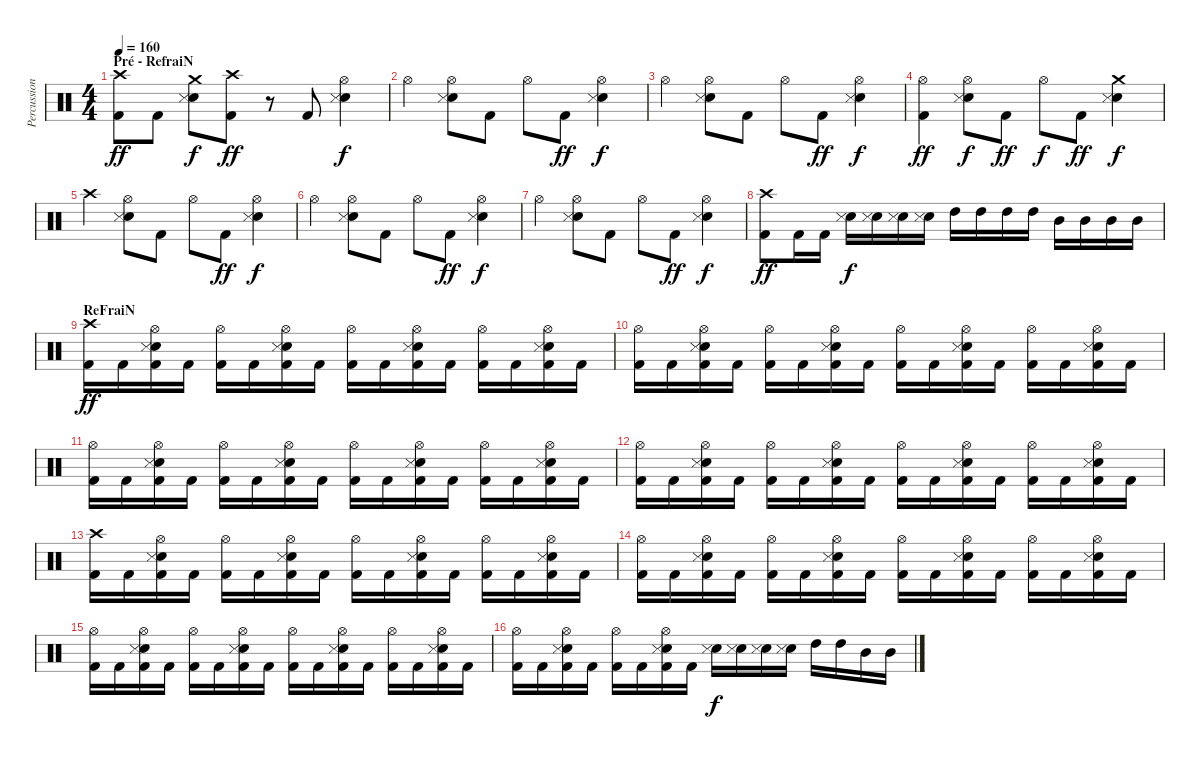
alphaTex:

\track ("Percussions" "Percussion") {instrument percussion}
\staff {score}
\articulation defaults
\ts (4 4)
\section ("" "Pré - RefraiN")
\tempo 160
\clef neutral
\ks c
("Crash high (hit)" "Kick (hit) 2").8{dy ff} "Kick (hit) 2".8 ("Crash medium (hit)" "Electric Snare (hit)" "Snare (side stick) 3").8{dy f} ("Crash high (hit)" "Kick (hit) 2").8{dy ff} r.8 "Kick (hit) 2".8 ("Hi-Hat (open)" "Electric Snare (hit)" "Snare (side stick) 3").4{dy f} |
"Hi-Hat (open)".4 ("Hi-Hat (open)" "Electric Snare (hit)" "Snare (side stick) 3").8 "Kick (hit) 2".8 "Hi-Hat (open)".8 "Kick (hit) 2".8{dy ff} ("Hi-Hat (open)" "Electric Snare (hit)" "Snare (side stick) 3").4{dy f} |
"Hi-Hat (open)".4 ("Hi-Hat (open)" "Electric Snare (hit)" "Snare (side stick) 3").8 "Kick (hit) 2".8 "Hi-Hat (open)".8 "Kick (hit) 2".8{dy ff} ("Hi-Hat (open)" "Electric Snare (hit)" "Snare (side stick) 3").4{dy f} |
("Hi-Hat (open)" "Kick (hit) 2").4{dy ff} ("Hi-Hat (open)" "Electric Snare (hit)" "Snare (side stick) 3").8{dy f} "Kick (hit) 2".8{dy ff} "Hi-Hat (open)".8{dy f} "Kick (hit) 2".8{dy ff} ("Crash medium (hit)" "Electric Snare (hit)" "Snare (side stick) 3").4{dy f} |
"Crash high (hit)".4 ("Hi-Hat (open)" "Electric Snare (hit)" "Snare (side stick) 3").8 "Kick (hit) 2".8 "Hi-Hat (open)".8 "Kick (hit) 2".8{dy ff} ("Hi-Hat (open)" "Electric Snare (hit)" "Snare (side stick) 3").4{dy f} |
"Hi-Hat (open)".4 ("Hi-Hat (open)" "Electric Snare (hit)" "Snare (side stick) 3").8 "Kick (hit) 2".8 "Hi-Hat (open)".8 "Kick (hit) 2".8{dy ff} ("Hi-Hat (open)" "Electric Snare (hit)" "Snare (side stick) 3").4{dy f} |
"Hi-Hat (open)".4 ("Hi-Hat (open)" "Electric Snare (hit)" "Snare (side stick) 3").8 "Kick (hit) 2".8 "Hi-Hat (open)".8 "Kick (hit) 2".8{dy ff} ("Hi-Hat (open)" "Electric Snare (hit)" "Snare (side stick) 3").4{dy f} |
("Crash high (hit)" "Kick (hit) 2").8{dy ff} "Kick (hit) 2".16 "Kick (hit) 2".16 ("Electric Snare (hit)" "Snare (side stick) 3").16{dy f} ("Electric Snare (hit)" "Snare (side stick) 3").16 ("Electric Snare (hit)" "Snare (side stick) 3").16 ("Electric Snare (hit)" "Snare (side stick) 3").16 "High Tom (hit)".16 "High Tom (hit)".16 "High Tom (hit)".16 "High Tom (hit)".16 "Mid Tom (hit)".16 "Mid Tom (hit)".16 "Mid Tom (hit)".16 "Mid Tom (hit)".16 |
\section ("" "ReFraiN")
("Crash high (hit)" "Kick (hit) 2").16{dy ff} "Kick (hit) 2".16 ("Hi-Hat (open)" "Electric Snare (hit)" "Snare (side stick) 3" "Kick (hit) 2").16 "Kick (hit) 2".16 ("Hi-Hat (open)" "Kick (hit) 2").16 "Kick (hit) 2".16 ("Hi-Hat (open)" "Electric Snare (hit)" "Snare (side stick) 3" "Kick (hit) 2").16 "Kick (hit) 2".16 ("Hi-Hat (open)" "Kick (hit) 2").16 "Kick (hit) 2".16 ("Hi-Hat (open)" "Electric Snare (hit)" "Snare (side stick) 3" "Kick (hit) 2").16 "Kick (hit) 2".16 ("Hi-Hat (open)" "Kick (hit) 2").16 "Kick (hit) 2".16 ("Hi-Hat (open)" "Electric Snare (hit)" "Snare (side stick) 3" "Kick (hit) 2").16 "Kick (hit) 2".16 |
("Hi-Hat (open)" "Kick (hit) 2").16 "Kick (hit) 2".16 ("Hi-Hat (open)" "Electric Snare (hit)" "Snare (side stick) 3" "Kick (hit) 2").16 "Kick (hit) 2".16 ("Hi-Hat (open)" "Kick (hit) 2").16 "Kick (hit) 2".16 ("Hi-Hat (open)" "Electric Snare (hit)" "Snare (side stick) 3" "Kick (hit) 2").16 "Kick (hit) 2".16 ("Hi-Hat (open)" "Kick (hit) 2").16 "Kick (hit) 2".16 ("Hi-Hat (open)" "Electric Snare (hit)" "Snare (side stick) 3" "Kick (hit) 2").16 "Kick (hit) 2".16 ("Hi-Hat (open)" "Kick (hit) 2").16 "Kick (hit) 2".16 ("Hi-Hat (open)" "Electric Snare (hit)" "Snare (side stick) 3" "Kick (hit) 2").16 "Kick (hit) 2".16 |
("Hi-Hat (open)" "Kick (hit) 2").16 "Kick (hit) 2".16 ("Hi-Hat (open)" "Electric Snare (hit)" "Snare (side stick) 3" "Kick (hit) 2").16 "Kick (hit) 2".16 ("Hi-Hat (open)" "Kick (hit) 2").16 "Kick (hit) 2".16 ("Hi-Hat (open)" "Electric Snare (hit)" "Snare (side stick) 3" "Kick (hit) 2").16 "Kick (hit) 2".16 ("Hi-Hat (open)" "Kick (hit) 2").16 "Kick (hit) 2".16 ("Hi-Hat (open)" "Electric Snare (hit)" "Snare (side stick) 3" "Kick (hit) 2").16 "Kick (hit) 2".16 ("Hi-Hat (open)" "Kick (hit) 2").16 "Kick (hit) 2".16 ("Hi-Hat (open)" "Electric Snare (hit)" "Snare (side stick) 3" "Kick (hit) 2").16 "Kick (hit) 2".16 |
("Hi-Hat (open)" "Kick (hit) 2").16 "Kick (hit) 2".16 ("Hi-Hat (open)" "Electric Snare (hit)" "Snare (side stick) 3" "Kick (hit) 2").16 "Kick (hit) 2".16 ("Hi-Hat (open)" "Kick (hit) 2").16 "Kick (hit) 2".16 ("Hi-Hat (open)" "Electric Snare (hit)" "Snare (side stick) 3" "Kick (hit) 2").16 "Kick (hit) 2".16 ("Hi-Hat (open)" "Kick (hit) 2").16 "Kick (hit) 2".16 ("Hi-Hat (open)" "Electric Snare (hit)" "Snare (side stick) 3" "Kick (hit) 2").16 "Kick (hit) 2".16 ("Hi-Hat (open)" "Kick (hit) 2").16 "Kick (hit) 2".16 ("Hi-Hat (open)" "Electric Snare (hit)" "Snare (side stick) 3" "Kick (hit) 2").16 "Kick (hit) 2".16 |
("Crash high (hit)" "Kick (hit) 2").16 "Kick (hit) 2".16 ("Hi-Hat (open)" "Electric Snare (hit)" "Snare (side stick) 3" "Kick (hit) 2").16 "Kick (hit) 2".16 ("Hi-Hat (open)" "Kick (hit) 2").16 "Kick (hit) 2".16 ("Hi-Hat (open)" "Electric Snare (hit)" "Snare (side stick) 3" "Kick (hit) 2").16 "Kick (hit) 2".16 ("Hi-Hat (open)" "Kick (hit) 2").16 "Kick (hit) 2".16 ("Hi-Hat (open)" "Electric Snare (hit)" "Snare (side stick) 3" "Kick (hit) 2").16 "Kick (hit) 2".16 ("Hi-Hat (open)" "Kick (hit) 2").16 "Kick (hit) 2".16 ("Hi-Hat (open)" "Electric Snare (hit)" "Snare (side stick) 3" "Kick (hit) 2").16 "Kick (hit) 2".16 |
("Hi-Hat (open)" "Kick (hit) 2").16 "Kick (hit) 2".16 ("Hi-Hat (open)" "Electric Snare (hit)" "Snare (side stick) 3" "Kick (hit) 2").16 "Kick (hit) 2".16 ("Hi-Hat (open)" "Kick (hit) 2").16 "Kick (hit) 2".16 ("Hi-Hat (open)" "Electric Snare (hit)" "Snare (side stick) 3" "Kick (hit) 2").16 "Kick (hit) 2".16 ("Hi-Hat (open)" "Kick (hit) 2").16 "Kick (hit) 2".16 ("Hi-Hat (open)" "Electric Snare (hit)" "Snare (side stick) 3" "Kick (hit) 2").16 "Kick (hit) 2".16 ("Hi-Hat (open)" "Kick (hit) 2").16 "Kick (hit) 2".16 ("Hi-Hat (open)" "Electric Snare (hit)" "Snare (side stick) 3" "Kick (hit) 2").16 "Kick (hit) 2".16 |
("Hi-Hat (open)" "Kick (hit) 2").16 "Kick (hit) 2".16 ("Hi-Hat (open)" "Electric Snare (hit)" "Snare (side stick) 3" "Kick (hit) 2").16 "Kick (hit) 2".16 ("Hi-Hat (open)" "Kick (hit) 2").16 "Kick (hit) 2".16 ("Hi-Hat (open)" "Electric Snare (hit)" "Snare (side stick) 3" "Kick (hit) 2").16 "Kick (hit) 2".16 ("Hi-Hat (open)" "Kick (hit) 2").16 "Kick (hit) 2".16 ("Hi-Hat (open)" "Electric Snare (hit)" "Snare (side stick) 3" "Kick (hit) 2").16 "Kick (hit) 2".16 ("Hi-Hat (open)" "Kick (hit) 2").16 "Kick (hit) 2".16 ("Hi-Hat (open)" "Electric Snare (hit)" "Snare (side stick) 3" "Kick (hit) 2").16 "Kick (hit) 2".16 |
("Hi-Hat (open)" "Kick (hit) 2").16 "Kick (hit) 2".16 ("Hi-Hat (open)" "Electric Snare (hit)" "Snare (side stick) 3" "Kick (hit) 2").16 "Kick (hit) 2".16 ("Hi-Hat (open)" "Kick (hit) 2").16 "Kick (hit) 2".16 ("Hi-Hat (open)" "Electric Snare (hit)" "Snare (side stick) 3" "Kick (hit) 2").16 "Kick (hit) 2".16 ("Electric Snare (hit)" "Snare (side stick) 3").16{dy f} ("Electric Snare (hit)" "Snare (side stick) 3").16 ("Electric Snare (hit)" "Snare (side stick) 3").16 ("Electric Snare (hit)" "Snare (side stick) 3").16 "High Tom (hit)".16 "High Tom (hit)".16 "Mid Tom (hit)".16 "Mid Tom (hit)".16
